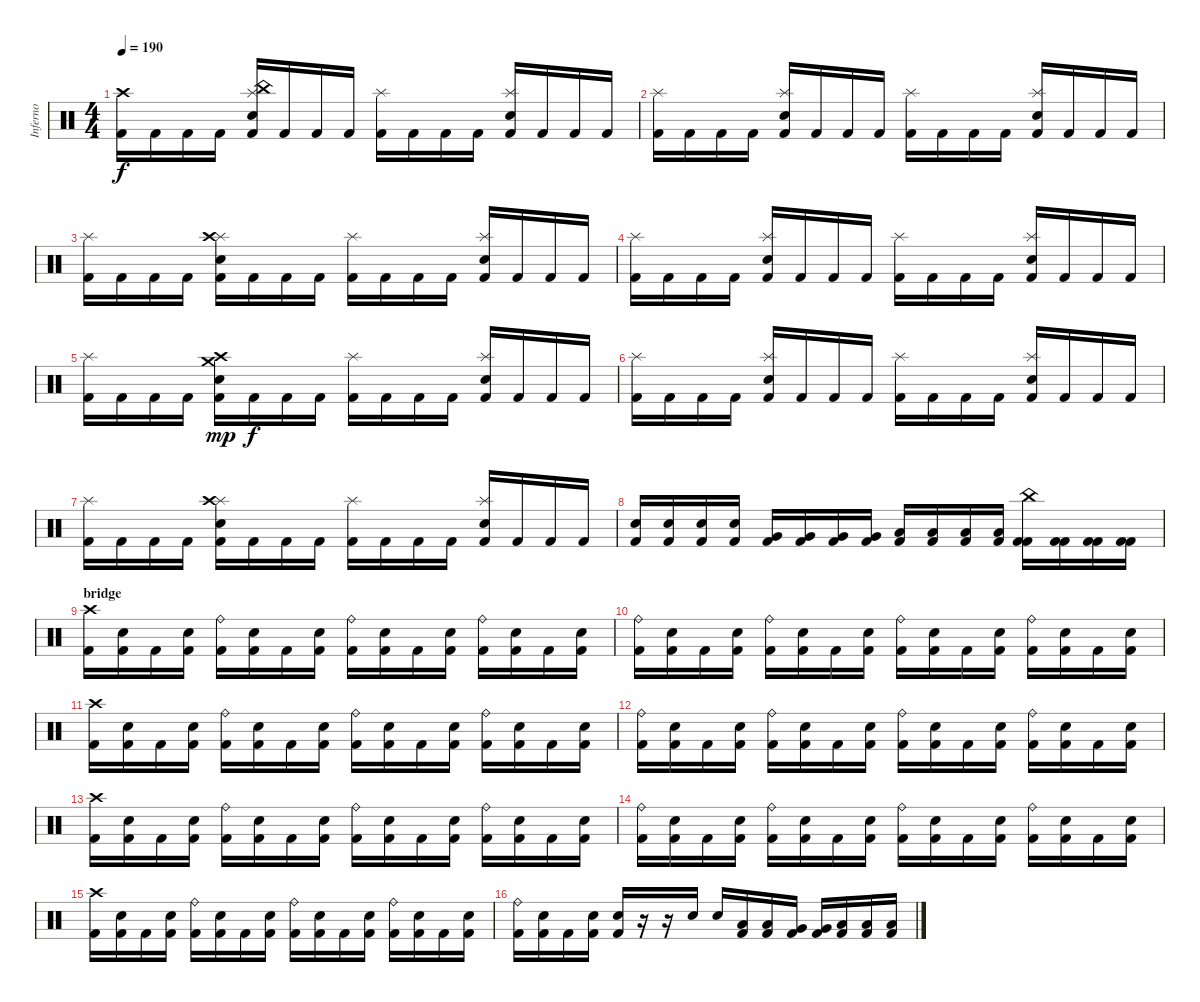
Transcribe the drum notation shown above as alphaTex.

\track ("Inferno" "Inferno") {instrument percussion}
\staff {score}
\articulation defaults
\ts (4 4)
\tempo 190
\clef neutral
\ks c
("Crash high (hit)" "Kick (hit) 2").16{dy f} "Kick (hit) 2".16 "Kick (hit) 2".16 "Kick (hit) 2".16 ("Splash (hit)" "China (hit)" "Snare (hit) 2" "Kick (hit) 2").16 "Kick (hit) 2".16 "Kick (hit) 2".16 "Kick (hit) 2".16 ("Splash (hit)" "Kick (hit) 2").16 "Kick (hit) 2".16 "Kick (hit) 2".16 "Kick (hit) 2".16 ("Splash (hit)" "Snare (hit) 2" "Kick (hit) 2").16 "Kick (hit) 2".16 "Kick (hit) 2".16 "Kick (hit) 2".16 |
("Splash (hit)" "Kick (hit) 2").16 "Kick (hit) 2".16 "Kick (hit) 2".16 "Kick (hit) 2".16 ("Splash (hit)" "Snare (hit) 2" "Kick (hit) 2").16 "Kick (hit) 2".16 "Kick (hit) 2".16 "Kick (hit) 2".16 ("Splash (hit)" "Kick (hit) 2").16 "Kick (hit) 2".16 "Kick (hit) 2".16 "Kick (hit) 2".16 ("Splash (hit)" "Snare (hit) 2" "Kick (hit) 2").16 "Kick (hit) 2".16 "Kick (hit) 2".16 "Kick (hit) 2".16 |
("Splash (hit)" "Kick (hit) 2").16 "Kick (hit) 2".16 "Kick (hit) 2".16 "Kick (hit) 2".16 ("Splash (hit)" "Crash high (hit)" "Snare (hit) 2" "Kick (hit) 2").16 "Kick (hit) 2".16 "Kick (hit) 2".16 "Kick (hit) 2".16 ("Splash (hit)" "Kick (hit) 2").16 "Kick (hit) 2".16 "Kick (hit) 2".16 "Kick (hit) 2".16 ("Splash (hit)" "Snare (hit) 2" "Kick (hit) 2").16 "Kick (hit) 2".16 "Kick (hit) 2".16 "Kick (hit) 2".16 |
("Splash (hit)" "Kick (hit) 2").16 "Kick (hit) 2".16 "Kick (hit) 2".16 "Kick (hit) 2".16 ("Splash (hit)" "Snare (hit) 2" "Kick (hit) 2").16 "Kick (hit) 2".16 "Kick (hit) 2".16 "Kick (hit) 2".16 ("Splash (hit)" "Kick (hit) 2").16 "Kick (hit) 2".16 "Kick (hit) 2".16 "Kick (hit) 2".16 ("Splash (hit)" "Snare (hit) 2" "Kick (hit) 2").16 "Kick (hit) 2".16 "Kick (hit) 2".16 "Kick (hit) 2".16 |
("Splash (hit)" "Kick (hit) 2").16 "Kick (hit) 2".16 "Kick (hit) 2".16 "Kick (hit) 2".16 ("Crash high (hit)" "Crash medium (hit)" "Snare (hit) 2" "Kick (hit) 2").16{dy mp} "Kick (hit) 2".16{dy f} "Kick (hit) 2".16 "Kick (hit) 2".16 ("Splash (hit)" "Kick (hit) 2").16 "Kick (hit) 2".16 "Kick (hit) 2".16 "Kick (hit) 2".16 ("Splash (hit)" "Snare (hit) 2" "Kick (hit) 2").16 "Kick (hit) 2".16 "Kick (hit) 2".16 "Kick (hit) 2".16 |
("Splash (hit)" "Kick (hit) 2").16 "Kick (hit) 2".16 "Kick (hit) 2".16 "Kick (hit) 2".16 ("Splash (hit)" "Snare (hit) 2" "Kick (hit) 2").16 "Kick (hit) 2".16 "Kick (hit) 2".16 "Kick (hit) 2".16 ("Splash (hit)" "Kick (hit) 2").16 "Kick (hit) 2".16 "Kick (hit) 2".16 "Kick (hit) 2".16 ("Splash (hit)" "Snare (hit) 2" "Kick (hit) 2").16 "Kick (hit) 2".16 "Kick (hit) 2".16 "Kick (hit) 2".16 |
("Splash (hit)" "Kick (hit) 2").16 "Kick (hit) 2".16 "Kick (hit) 2".16 "Kick (hit) 2".16 ("Splash (hit)" "Crash high (hit)" "Snare (hit) 2" "Kick (hit) 2").16 "Kick (hit) 2".16 "Kick (hit) 2".16 "Kick (hit) 2".16 ("Splash (hit)" "Kick (hit) 2").16 "Kick (hit) 2".16 "Kick (hit) 2".16 "Kick (hit) 2".16 ("Splash (hit)" "Snare (hit) 2" "Kick (hit) 2").16 "Kick (hit) 2".16 "Kick (hit) 2".16 "Kick (hit) 2".16 |
("Snare (hit) 2" "Kick (hit) 2").16 ("Snare (hit) 2" "Kick (hit) 2").16 ("Snare (hit) 2" "Kick (hit) 2").16 ("Snare (hit) 2" "Kick (hit) 2").16 ("Very Low Tom (hit)" "Kick (hit) 2").16 ("Very Low Tom (hit)" "Kick (hit) 2").16 ("Very Low Tom (hit)" "Kick (hit) 2").16 ("Very Low Tom (hit)" "Kick (hit) 2").16 ("Low Floor Tom (hit)" "Kick (hit) 2").16 ("Low Floor Tom (hit)" "Kick (hit) 2").16 ("Low Floor Tom (hit)" "Kick (hit) 2").16 ("Low Floor Tom (hit)" "Kick (hit) 2").16 ("China (hit)" "Kick (hit) 2" "Kick (hit) 2").16 ("Kick (hit) 2" "Kick (hit) 2").16 ("Kick (hit) 2" "Kick (hit) 2").16 ("Kick (hit) 2" "Kick (hit) 2").16 |
\section ("" "bridge")
("Crash high (hit)" "Kick (hit) 2").16 ("Snare (hit) 2" "Kick (hit) 2").16 "Kick (hit) 2".16 ("Snare (hit) 2" "Kick (hit) 2").16 ("Ride (bell)" "Kick (hit) 2").16 ("Snare (hit) 2" "Kick (hit) 2").16 "Kick (hit) 2".16 ("Snare (hit) 2" "Kick (hit) 2").16 ("Ride (bell)" "Kick (hit) 2").16 ("Snare (hit) 2" "Kick (hit) 2").16 "Kick (hit) 2".16 ("Snare (hit) 2" "Kick (hit) 2").16 ("Ride (bell)" "Kick (hit) 2").16 ("Snare (hit) 2" "Kick (hit) 2").16 "Kick (hit) 2".16 ("Snare (hit) 2" "Kick (hit) 2").16 |
("Ride (bell)" "Kick (hit) 2").16 ("Snare (hit) 2" "Kick (hit) 2").16 "Kick (hit) 2".16 ("Snare (hit) 2" "Kick (hit) 2").16 ("Ride (bell)" "Kick (hit) 2").16 ("Snare (hit) 2" "Kick (hit) 2").16 "Kick (hit) 2".16 ("Snare (hit) 2" "Kick (hit) 2").16 ("Ride (bell)" "Kick (hit) 2").16 ("Snare (hit) 2" "Kick (hit) 2").16 "Kick (hit) 2".16 ("Snare (hit) 2" "Kick (hit) 2").16 ("Ride (bell)" "Kick (hit) 2").16 ("Snare (hit) 2" "Kick (hit) 2").16 "Kick (hit) 2".16 ("Snare (hit) 2" "Kick (hit) 2").16 |
("Crash high (hit)" "Kick (hit) 2").16 ("Snare (hit) 2" "Kick (hit) 2").16 "Kick (hit) 2".16 ("Snare (hit) 2" "Kick (hit) 2").16 ("Ride (bell)" "Kick (hit) 2").16 ("Snare (hit) 2" "Kick (hit) 2").16 "Kick (hit) 2".16 ("Snare (hit) 2" "Kick (hit) 2").16 ("Ride (bell)" "Kick (hit) 2").16 ("Snare (hit) 2" "Kick (hit) 2").16 "Kick (hit) 2".16 ("Snare (hit) 2" "Kick (hit) 2").16 ("Ride (bell)" "Kick (hit) 2").16 ("Snare (hit) 2" "Kick (hit) 2").16 "Kick (hit) 2".16 ("Snare (hit) 2" "Kick (hit) 2").16 |
("Ride (bell)" "Kick (hit) 2").16 ("Snare (hit) 2" "Kick (hit) 2").16 "Kick (hit) 2".16 ("Snare (hit) 2" "Kick (hit) 2").16 ("Ride (bell)" "Kick (hit) 2").16 ("Snare (hit) 2" "Kick (hit) 2").16 "Kick (hit) 2".16 ("Snare (hit) 2" "Kick (hit) 2").16 ("Ride (bell)" "Kick (hit) 2").16 ("Snare (hit) 2" "Kick (hit) 2").16 "Kick (hit) 2".16 ("Snare (hit) 2" "Kick (hit) 2").16 ("Ride (bell)" "Kick (hit) 2").16 ("Snare (hit) 2" "Kick (hit) 2").16 "Kick (hit) 2".16 ("Snare (hit) 2" "Kick (hit) 2").16 |
("Crash high (hit)" "Kick (hit) 2").16 ("Snare (hit) 2" "Kick (hit) 2").16 "Kick (hit) 2".16 ("Snare (hit) 2" "Kick (hit) 2").16 ("Ride (bell)" "Kick (hit) 2").16 ("Snare (hit) 2" "Kick (hit) 2").16 "Kick (hit) 2".16 ("Snare (hit) 2" "Kick (hit) 2").16 ("Ride (bell)" "Kick (hit) 2").16 ("Snare (hit) 2" "Kick (hit) 2").16 "Kick (hit) 2".16 ("Snare (hit) 2" "Kick (hit) 2").16 ("Ride (bell)" "Kick (hit) 2").16 ("Snare (hit) 2" "Kick (hit) 2").16 "Kick (hit) 2".16 ("Snare (hit) 2" "Kick (hit) 2").16 |
("Ride (bell)" "Kick (hit) 2").16 ("Snare (hit) 2" "Kick (hit) 2").16 "Kick (hit) 2".16 ("Snare (hit) 2" "Kick (hit) 2").16 ("Ride (bell)" "Kick (hit) 2").16 ("Snare (hit) 2" "Kick (hit) 2").16 "Kick (hit) 2".16 ("Snare (hit) 2" "Kick (hit) 2").16 ("Ride (bell)" "Kick (hit) 2").16 ("Snare (hit) 2" "Kick (hit) 2").16 "Kick (hit) 2".16 ("Snare (hit) 2" "Kick (hit) 2").16 ("Ride (bell)" "Kick (hit) 2").16 ("Snare (hit) 2" "Kick (hit) 2").16 "Kick (hit) 2".16 ("Snare (hit) 2" "Kick (hit) 2").16 |
("Crash high (hit)" "Kick (hit) 2").16 ("Snare (hit) 2" "Kick (hit) 2").16 "Kick (hit) 2".16 ("Snare (hit) 2" "Kick (hit) 2").16 ("Ride (bell)" "Kick (hit) 2").16 ("Snare (hit) 2" "Kick (hit) 2").16 "Kick (hit) 2".16 ("Snare (hit) 2" "Kick (hit) 2").16 ("Ride (bell)" "Kick (hit) 2").16 ("Snare (hit) 2" "Kick (hit) 2").16 "Kick (hit) 2".16 ("Snare (hit) 2" "Kick (hit) 2").16 ("Ride (bell)" "Kick (hit) 2").16 ("Snare (hit) 2" "Kick (hit) 2").16 "Kick (hit) 2".16 ("Snare (hit) 2" "Kick (hit) 2").16 |
("Ride (bell)" "Kick (hit) 2").16 ("Snare (hit) 2" "Kick (hit) 2").16 "Kick (hit) 2".16 ("Snare (hit) 2" "Kick (hit) 2").16 ("Snare (hit) 2" "Kick (hit) 2").16 r.16 r.16 "Snare (hit) 2".16 "Snare (hit) 2".16 ("Low Tom (hit)" "Kick (hit) 2").16 ("Low Tom (hit)" "Kick (hit) 2").16 ("Very Low Tom (hit)" "Kick (hit) 2").16 ("Very Low Tom (hit)" "Kick (hit) 2").16 ("Low Floor Tom (hit)" "Kick (hit) 2").16 ("Low Floor Tom (hit)" "Kick (hit) 2").16 ("Low Floor Tom (hit)" "Kick (hit) 2").16
